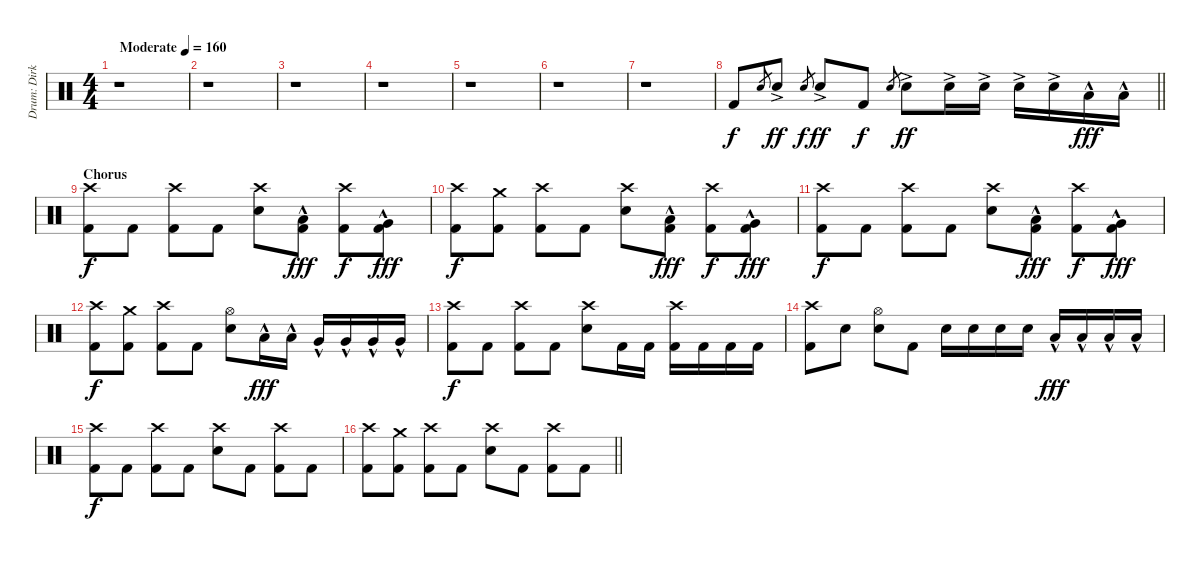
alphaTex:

\track ("Drum: Dirk" "Drum: Dirk") {instrument percussion}
\staff {score}
\articulation defaults
\ts (4 4)
\tempo (160 "Moderate")
\clef neutral
\ks c
r.1{dy f} |
r.1 |
r.1 |
r.1 |
r.1 |
r.1 |
r.1 |
\barLineRight lightlight "Kick (hit) 2".8 "Electric Snare (hit)".8{gr} "Electric Snare (hit)"{ac}.8{dy ff} "Electric Snare (hit)".8{gr dy f} "Electric Snare (hit)"{ac}.8{dy ff} "Kick (hit) 2".8{dy f} "Electric Snare (hit)".8{gr} "Electric Snare (hit)"{ac}.8{dy ff} "Electric Snare (hit)"{ac}.16 "Electric Snare (hit)"{ac}.16 "Electric Snare (hit)"{ac}.16 "Electric Snare (hit)"{ac}.16 "Low Tom (hit)"{hac}.16{dy fff} "Low Tom (hit)"{hac}.16
|
\section ("" "Chorus")
("Crash high (hit)" "Kick (hit) 2").8{dy f} "Kick (hit) 2".8 ("Crash high (hit)" "Kick (hit) 2").8 "Kick (hit) 2".8 ("Crash high (hit)" "Electric Snare (hit)").8 ("Low Tom (hit)"{hac} "Kick (hit) 2").8{dy fff} ("Crash high (hit)" "Kick (hit) 2").8{dy f} ("Very Low Tom (hit)"{hac} "Kick (hit) 2").8{dy fff} |
("Crash high (hit)" "Kick (hit) 2").8{dy f} ("Crash medium (hit)" "Kick (hit) 2").8 ("Crash high (hit)" "Kick (hit) 2").8 "Kick (hit) 2".8 ("Crash high (hit)" "Electric Snare (hit)").8 ("Low Tom (hit)"{hac} "Kick (hit) 2").8{dy fff} ("Crash high (hit)" "Kick (hit) 2").8{dy f} ("Very Low Tom (hit)"{hac} "Kick (hit) 2").8{dy fff} |
("Crash high (hit)" "Kick (hit) 2").8{dy f} "Kick (hit) 2".8 ("Crash high (hit)" "Kick (hit) 2").8 "Kick (hit) 2".8 ("Crash high (hit)" "Electric Snare (hit)").8 ("Low Tom (hit)"{hac} "Kick (hit) 2").8{dy fff} ("Crash high (hit)" "Kick (hit) 2").8{dy f} ("Very Low Tom (hit)"{hac} "Kick (hit) 2").8{dy fff} |
("Crash high (hit)" "Kick (hit) 2").8{dy f} ("Crash medium (hit)" "Kick (hit) 2").8 ("Crash high (hit)" "Kick (hit) 2").8 "Kick (hit) 2".8 ("Hi-Hat (open)" "Electric Snare (hit)").8 "Low Tom (hit)"{hac}.16{dy fff} "Low Tom (hit)"{hac}.16 "Very Low Tom (hit)"{hac}.16 "Very Low Tom (hit)"{hac}.16 "Very Low Tom (hit)"{hac}.16 "Very Low Tom (hit)"{hac}.16 |
("Crash high (hit)" "Kick (hit) 2").8{dy f} "Kick (hit) 2".8 ("Crash high (hit)" "Kick (hit) 2").8 "Kick (hit) 2".8 ("Crash high (hit)" "Electric Snare (hit)").8 "Kick (hit) 2".16 "Kick (hit) 2".16 ("Crash high (hit)" "Kick (hit) 2").16 "Kick (hit) 2".16 "Kick (hit) 2".16 "Kick (hit) 2".16 |
("Crash high (hit)" "Kick (hit) 2").8 "Electric Snare (hit)".8 ("Hi-Hat (open)" "Electric Snare (hit)").8 "Kick (hit) 2".8 "Electric Snare (hit)".16 "Electric Snare (hit)".16 "Electric Snare (hit)".16 "Electric Snare (hit)".16 "Low Tom (hit)"{hac}.16{dy fff} "Low Tom (hit)"{hac}.16 "Low Tom (hit)"{hac}.16 "Low Tom (hit)"{hac}.16 |
("Crash high (hit)" "Kick (hit) 2").8{dy f} "Kick (hit) 2".8 ("Crash high (hit)" "Kick (hit) 2").8 "Kick (hit) 2".8 ("Crash high (hit)" "Electric Snare (hit)").8 "Kick (hit) 2".8 ("Crash high (hit)" "Kick (hit) 2").8 "Kick (hit) 2".8 |
\barLineRight lightlight
("Crash high (hit)" "Kick (hit) 2").8 ("Crash medium (hit)" "Kick (hit) 2").8 ("Crash high (hit)" "Kick (hit) 2").8 "Kick (hit) 2".8 ("Crash high (hit)" "Electric Snare (hit)").8 "Kick (hit) 2".8 ("Crash high (hit)" "Kick (hit) 2").8 "Kick (hit) 2".8
